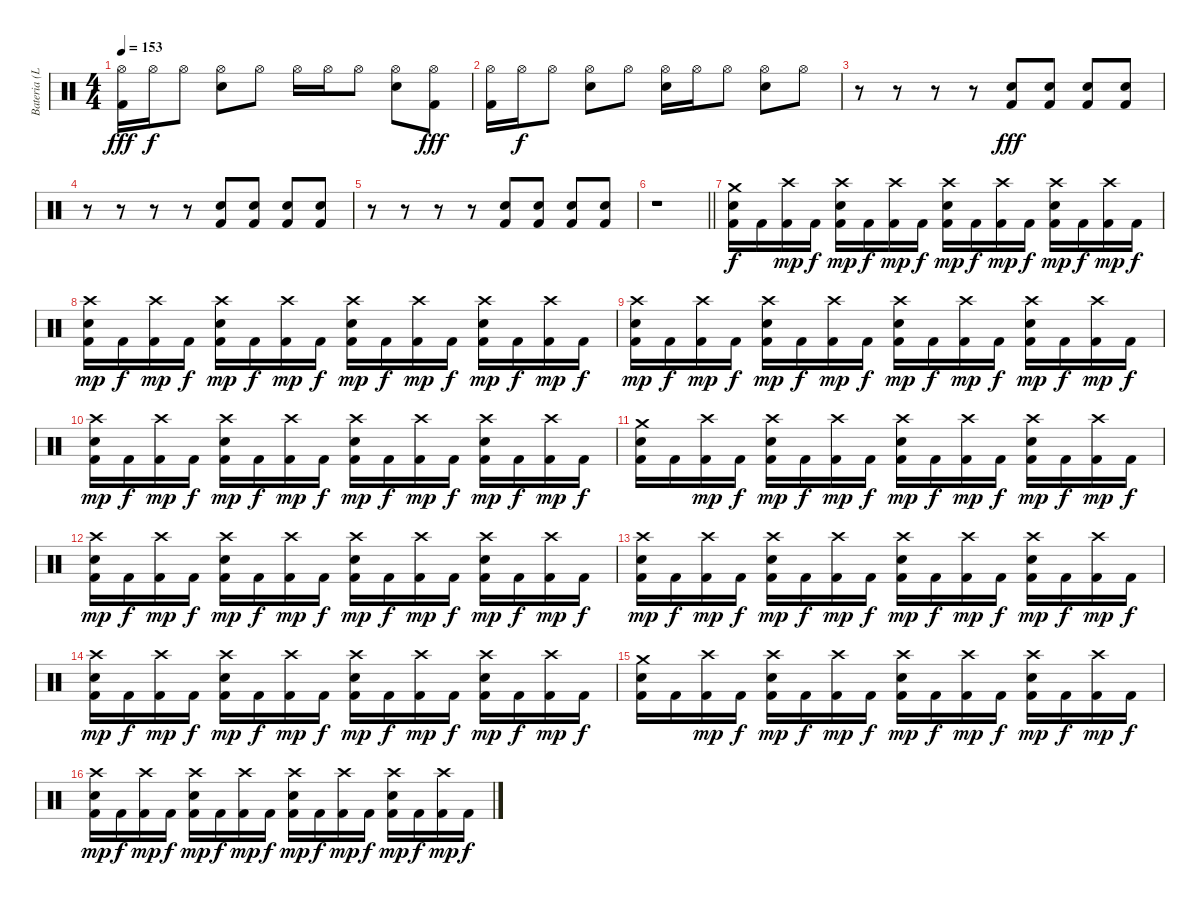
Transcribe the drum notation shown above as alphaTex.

\track ("Bateria (Lars)" "Bateria (L") {instrument percussion}
\staff {score}
\articulation defaults
\ts (4 4)
\tempo 153
\clef neutral
\ks c
("Hi-Hat (open)" "Kick (hit) 2").16{dy fff} "Hi-Hat (open)".16{dy f} "Hi-Hat (open)".8 ("Hi-Hat (open)" "Electric Snare (hit)").8 "Hi-Hat (open)".8 "Hi-Hat (open)".16 "Hi-Hat (open)".16 "Hi-Hat (open)".8 ("Hi-Hat (open)" "Electric Snare (hit)").8 ("Hi-Hat (open)" "Kick (hit) 2").8{dy fff} |
("Hi-Hat (open)" "Kick (hit) 2").16 "Hi-Hat (open)".16{dy f} "Hi-Hat (open)".8 ("Hi-Hat (open)" "Electric Snare (hit)").8 "Hi-Hat (open)".8 ("Hi-Hat (open)" "Electric Snare (hit)").16 "Hi-Hat (open)".16 "Hi-Hat (open)".8 ("Hi-Hat (open)" "Electric Snare (hit)").8 "Hi-Hat (open)".8 |
r.8 r.8 r.8 r.8 ("Electric Snare (hit)" "Kick (hit) 2").8{dy fff} ("Electric Snare (hit)" "Kick (hit) 2").8 ("Electric Snare (hit)" "Kick (hit) 2").8 ("Electric Snare (hit)" "Kick (hit) 2").8 |
r.8 r.8 r.8 r.8 ("Electric Snare (hit)" "Kick (hit) 2").8 ("Electric Snare (hit)" "Kick (hit) 2").8 ("Electric Snare (hit)" "Kick (hit) 2").8 ("Electric Snare (hit)" "Kick (hit) 2").8 |
r.8 r.8 r.8 r.8 ("Electric Snare (hit)" "Kick (hit) 2").8 ("Electric Snare (hit)" "Kick (hit) 2").8 ("Electric Snare (hit)" "Kick (hit) 2").8 ("Electric Snare (hit)" "Kick (hit) 2").8 |
\barLineRight lightlight
r.1 |
("Crash medium (hit)" "Electric Snare (hit)" "Kick (hit) 2").16{dy f} "Kick (hit) 2".16 ("Crash high (hit)" "Kick (hit) 2").16{dy mp} "Kick (hit) 2".16{dy f} ("Crash high (hit)" "Electric Snare (hit)" "Kick (hit) 2").16{dy mp} "Kick (hit) 2".16{dy f} ("Crash high (hit)" "Kick (hit) 2").16{dy mp} "Kick (hit) 2".16{dy f} ("Crash high (hit)" "Electric Snare (hit)" "Kick (hit) 2").16{dy mp} "Kick (hit) 2".16{dy f} ("Crash high (hit)" "Kick (hit) 2").16{dy mp} "Kick (hit) 2".16{dy f} ("Crash high (hit)" "Electric Snare (hit)" "Kick (hit) 2").16{dy mp} "Kick (hit) 2".16{dy f} ("Crash high (hit)" "Kick (hit) 2").16{dy mp} "Kick (hit) 2".16{dy f} |
("Crash high (hit)" "Electric Snare (hit)" "Kick (hit) 2").16{dy mp} "Kick (hit) 2".16{dy f} ("Crash high (hit)" "Kick (hit) 2").16{dy mp} "Kick (hit) 2".16{dy f} ("Crash high (hit)" "Electric Snare (hit)" "Kick (hit) 2").16{dy mp} "Kick (hit) 2".16{dy f} ("Crash high (hit)" "Kick (hit) 2").16{dy mp} "Kick (hit) 2".16{dy f} ("Crash high (hit)" "Electric Snare (hit)" "Kick (hit) 2").16{dy mp} "Kick (hit) 2".16{dy f} ("Crash high (hit)" "Kick (hit) 2").16{dy mp} "Kick (hit) 2".16{dy f} ("Crash high (hit)" "Electric Snare (hit)" "Kick (hit) 2").16{dy mp} "Kick (hit) 2".16{dy f} ("Crash high (hit)" "Kick (hit) 2").16{dy mp} "Kick (hit) 2".16{dy f} |
("Crash high (hit)" "Electric Snare (hit)" "Kick (hit) 2").16{dy mp} "Kick (hit) 2".16{dy f} ("Crash high (hit)" "Kick (hit) 2").16{dy mp} "Kick (hit) 2".16{dy f} ("Crash high (hit)" "Electric Snare (hit)" "Kick (hit) 2").16{dy mp} "Kick (hit) 2".16{dy f} ("Crash high (hit)" "Kick (hit) 2").16{dy mp} "Kick (hit) 2".16{dy f} ("Crash high (hit)" "Electric Snare (hit)" "Kick (hit) 2").16{dy mp} "Kick (hit) 2".16{dy f} ("Crash high (hit)" "Kick (hit) 2").16{dy mp} "Kick (hit) 2".16{dy f} ("Crash high (hit)" "Electric Snare (hit)" "Kick (hit) 2").16{dy mp} "Kick (hit) 2".16{dy f} ("Crash high (hit)" "Kick (hit) 2").16{dy mp} "Kick (hit) 2".16{dy f} |
("Crash high (hit)" "Electric Snare (hit)" "Kick (hit) 2").16{dy mp} "Kick (hit) 2".16{dy f} ("Crash high (hit)" "Kick (hit) 2").16{dy mp} "Kick (hit) 2".16{dy f} ("Crash high (hit)" "Electric Snare (hit)" "Kick (hit) 2").16{dy mp} "Kick (hit) 2".16{dy f} ("Crash high (hit)" "Kick (hit) 2").16{dy mp} "Kick (hit) 2".16{dy f} ("Crash high (hit)" "Electric Snare (hit)" "Kick (hit) 2").16{dy mp} "Kick (hit) 2".16{dy f} ("Crash high (hit)" "Kick (hit) 2").16{dy mp} "Kick (hit) 2".16{dy f} ("Crash high (hit)" "Electric Snare (hit)" "Kick (hit) 2").16{dy mp} "Kick (hit) 2".16{dy f} ("Crash high (hit)" "Kick (hit) 2").16{dy mp} "Kick (hit) 2".16{dy f} |
("Crash medium (hit)" "Electric Snare (hit)" "Kick (hit) 2").16 "Kick (hit) 2".16 ("Crash high (hit)" "Kick (hit) 2").16{dy mp} "Kick (hit) 2".16{dy f} ("Crash high (hit)" "Electric Snare (hit)" "Kick (hit) 2").16{dy mp} "Kick (hit) 2".16{dy f} ("Crash high (hit)" "Kick (hit) 2").16{dy mp} "Kick (hit) 2".16{dy f} ("Crash high (hit)" "Electric Snare (hit)" "Kick (hit) 2").16{dy mp} "Kick (hit) 2".16{dy f} ("Crash high (hit)" "Kick (hit) 2").16{dy mp} "Kick (hit) 2".16{dy f} ("Crash high (hit)" "Electric Snare (hit)" "Kick (hit) 2").16{dy mp} "Kick (hit) 2".16{dy f} ("Crash high (hit)" "Kick (hit) 2").16{dy mp} "Kick (hit) 2".16{dy f} |
("Crash high (hit)" "Electric Snare (hit)" "Kick (hit) 2").16{dy mp} "Kick (hit) 2".16{dy f} ("Crash high (hit)" "Kick (hit) 2").16{dy mp} "Kick (hit) 2".16{dy f} ("Crash high (hit)" "Electric Snare (hit)" "Kick (hit) 2").16{dy mp} "Kick (hit) 2".16{dy f} ("Crash high (hit)" "Kick (hit) 2").16{dy mp} "Kick (hit) 2".16{dy f} ("Crash high (hit)" "Electric Snare (hit)" "Kick (hit) 2").16{dy mp} "Kick (hit) 2".16{dy f} ("Crash high (hit)" "Kick (hit) 2").16{dy mp} "Kick (hit) 2".16{dy f} ("Crash high (hit)" "Electric Snare (hit)" "Kick (hit) 2").16{dy mp} "Kick (hit) 2".16{dy f} ("Crash high (hit)" "Kick (hit) 2").16{dy mp} "Kick (hit) 2".16{dy f} |
("Crash high (hit)" "Electric Snare (hit)" "Kick (hit) 2").16{dy mp} "Kick (hit) 2".16{dy f} ("Crash high (hit)" "Kick (hit) 2").16{dy mp} "Kick (hit) 2".16{dy f} ("Crash high (hit)" "Electric Snare (hit)" "Kick (hit) 2").16{dy mp} "Kick (hit) 2".16{dy f} ("Crash high (hit)" "Kick (hit) 2").16{dy mp} "Kick (hit) 2".16{dy f} ("Crash high (hit)" "Electric Snare (hit)" "Kick (hit) 2").16{dy mp} "Kick (hit) 2".16{dy f} ("Crash high (hit)" "Kick (hit) 2").16{dy mp} "Kick (hit) 2".16{dy f} ("Crash high (hit)" "Electric Snare (hit)" "Kick (hit) 2").16{dy mp} "Kick (hit) 2".16{dy f} ("Crash high (hit)" "Kick (hit) 2").16{dy mp} "Kick (hit) 2".16{dy f} |
("Crash high (hit)" "Electric Snare (hit)" "Kick (hit) 2").16{dy mp} "Kick (hit) 2".16{dy f} ("Crash high (hit)" "Kick (hit) 2").16{dy mp} "Kick (hit) 2".16{dy f} ("Crash high (hit)" "Electric Snare (hit)" "Kick (hit) 2").16{dy mp} "Kick (hit) 2".16{dy f} ("Crash high (hit)" "Kick (hit) 2").16{dy mp} "Kick (hit) 2".16{dy f} ("Crash high (hit)" "Electric Snare (hit)" "Kick (hit) 2").16{dy mp} "Kick (hit) 2".16{dy f} ("Crash high (hit)" "Kick (hit) 2").16{dy mp} "Kick (hit) 2".16{dy f} ("Crash high (hit)" "Electric Snare (hit)" "Kick (hit) 2").16{dy mp} "Kick (hit) 2".16{dy f} ("Crash high (hit)" "Kick (hit) 2").16{dy mp} "Kick (hit) 2".16{dy f} |
("Crash medium (hit)" "Electric Snare (hit)" "Kick (hit) 2").16 "Kick (hit) 2".16 ("Crash high (hit)" "Kick (hit) 2").16{dy mp} "Kick (hit) 2".16{dy f} ("Crash high (hit)" "Electric Snare (hit)" "Kick (hit) 2").16{dy mp} "Kick (hit) 2".16{dy f} ("Crash high (hit)" "Kick (hit) 2").16{dy mp} "Kick (hit) 2".16{dy f} ("Crash high (hit)" "Electric Snare (hit)" "Kick (hit) 2").16{dy mp} "Kick (hit) 2".16{dy f} ("Crash high (hit)" "Kick (hit) 2").16{dy mp} "Kick (hit) 2".16{dy f} ("Crash high (hit)" "Electric Snare (hit)" "Kick (hit) 2").16{dy mp} "Kick (hit) 2".16{dy f} ("Crash high (hit)" "Kick (hit) 2").16{dy mp} "Kick (hit) 2".16{dy f} |
("Crash high (hit)" "Electric Snare (hit)" "Kick (hit) 2").16{dy mp} "Kick (hit) 2".16{dy f} ("Crash high (hit)" "Kick (hit) 2").16{dy mp} "Kick (hit) 2".16{dy f} ("Crash high (hit)" "Electric Snare (hit)" "Kick (hit) 2").16{dy mp} "Kick (hit) 2".16{dy f} ("Crash high (hit)" "Kick (hit) 2").16{dy mp} "Kick (hit) 2".16{dy f} ("Crash high (hit)" "Electric Snare (hit)" "Kick (hit) 2").16{dy mp} "Kick (hit) 2".16{dy f} ("Crash high (hit)" "Kick (hit) 2").16{dy mp} "Kick (hit) 2".16{dy f} ("Crash high (hit)" "Electric Snare (hit)" "Kick (hit) 2").16{dy mp} "Kick (hit) 2".16{dy f} ("Crash high (hit)" "Kick (hit) 2").16{dy mp} "Kick (hit) 2".16{dy f}
